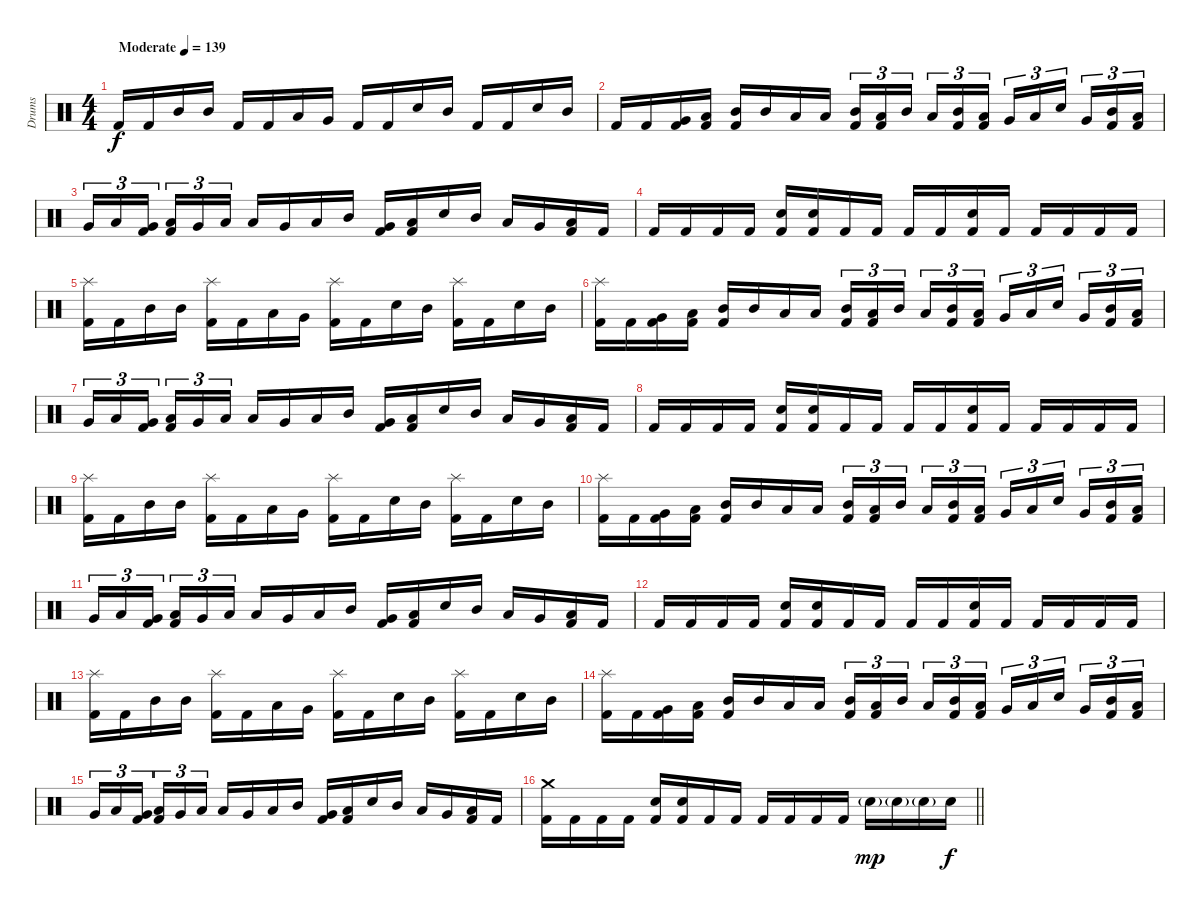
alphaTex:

\track ("Drums" "Drums") {instrument percussion}
\staff {score}
\articulation defaults
\ts (4 4)
\section ("" "")
\tempo (139 "Moderate")
\clef neutral
\ks c "Kick (hit) 2".16{dy f} "Kick (hit) 2".16 "Mid Tom (hit)".16 "Mid Tom (hit)".16 "Kick (hit) 2".16 "Kick (hit) 2".16 "Low Tom (hit)".16 "Very Low Tom (hit)".16 "Kick (hit) 2".16 "Kick (hit) 2".16 "Electric Snare (hit)".16 "Mid Tom (hit)".16 "Kick (hit) 2".16 "Kick (hit) 2".16 "Electric Snare (hit)".16 "Mid Tom (hit)".16
|
"Kick (hit) 2".16 "Kick (hit) 2".16 ("Very Low Tom (hit)" "Kick (hit) 2").16 ("Low Tom (hit)" "Kick (hit) 2").16 ("Mid Tom (hit)" "Kick (hit) 2").16 "Mid Tom (hit)".16 "Low Tom (hit)".16 "Low Tom (hit)".16 ("Mid Tom (hit)" "Kick (hit) 2").16{tu (3 2)} ("Low Tom (hit)" "Kick (hit) 2").16{tu (3 2)} "Mid Tom (hit)".16{tu (3 2) beam splitsecondary} "Low Tom (hit)".16{tu (3 2)} ("Mid Tom (hit)" "Kick (hit) 2").16{tu (3 2)} ("Low Tom (hit)" "Kick (hit) 2").16{tu (3 2)} "Very Low Tom (hit)".16{tu (3 2)} "Low Tom (hit)".16{tu (3 2)} "Electric Snare (hit)".16{tu (3 2) beam splitsecondary} "Very Low Tom (hit)".16{tu (3 2)} ("Mid Tom (hit)" "Kick (hit) 2").16{tu (3 2)} ("Low Tom (hit)" "Kick (hit) 2").16{tu (3 2)} |
"Very Low Tom (hit)".16{tu (3 2)} "Low Tom (hit)".16{tu (3 2)} ("Very Low Tom (hit)" "Kick (hit) 2").16{tu (3 2) beam splitsecondary} ("Low Floor Tom (hit)" "Kick (hit) 2").16{tu (3 2)} "Very Low Tom (hit)".16{tu (3 2)} "Low Floor Tom (hit)".16{tu (3 2)} "Low Tom (hit)".16 "Very Low Tom (hit)".16 "Low Tom (hit)".16 "Mid Tom (hit)".16 ("Very Low Tom (hit)" "Kick (hit) 2").16 ("Low Floor Tom (hit)" "Kick (hit) 2").16 "Electric Snare (hit)".16 "Mid Tom (hit)".16 "Low Tom (hit)".16 "Very Low Tom (hit)".16 ("Low Floor Tom (hit)" "Kick (hit) 2").16 "Kick (hit) 2".16 |
"Kick (hit) 2".16 "Kick (hit) 2".16 "Kick (hit) 2".16 "Kick (hit) 2".16 ("Electric Snare (hit)" "Kick (hit) 2").16 ("Electric Snare (hit)" "Kick (hit) 2").16 "Kick (hit) 2".16 "Kick (hit) 2".16 "Kick (hit) 2".16 "Kick (hit) 2".16 ("Electric Snare (hit)" "Kick (hit) 2").16 "Kick (hit) 2".16 "Kick (hit) 2".16 "Kick (hit) 2".16 "Kick (hit) 2".16 "Kick (hit) 2".16 |
("Splash (hit)" "Kick (hit) 2").16 "Kick (hit) 2".16 "Mid Tom (hit)".16 "Mid Tom (hit)".16 ("Splash (hit)" "Kick (hit) 2").16 "Kick (hit) 2".16 "Low Tom (hit)".16 "Very Low Tom (hit)".16 ("Splash (hit)" "Kick (hit) 2").16 "Kick (hit) 2".16 "Electric Snare (hit)".16 "Mid Tom (hit)".16 ("Splash (hit)" "Kick (hit) 2").16 "Kick (hit) 2".16 "Electric Snare (hit)".16 "Mid Tom (hit)".16 |
("Splash (hit)" "Kick (hit) 2").16 "Kick (hit) 2".16 ("Very Low Tom (hit)" "Kick (hit) 2").16 ("Low Tom (hit)" "Kick (hit) 2").16 ("Mid Tom (hit)" "Kick (hit) 2").16 "Mid Tom (hit)".16 "Low Tom (hit)".16 "Low Tom (hit)".16 ("Mid Tom (hit)" "Kick (hit) 2").16{tu (3 2)} ("Low Tom (hit)" "Kick (hit) 2").16{tu (3 2)} "Mid Tom (hit)".16{tu (3 2) beam splitsecondary} "Low Tom (hit)".16{tu (3 2)} ("Mid Tom (hit)" "Kick (hit) 2").16{tu (3 2)} ("Low Tom (hit)" "Kick (hit) 2").16{tu (3 2)} "Very Low Tom (hit)".16{tu (3 2)} "Low Tom (hit)".16{tu (3 2)} "Electric Snare (hit)".16{tu (3 2) beam splitsecondary} "Very Low Tom (hit)".16{tu (3 2)} ("Mid Tom (hit)" "Kick (hit) 2").16{tu (3 2)} ("Low Tom (hit)" "Kick (hit) 2").16{tu (3 2)} |
"Very Low Tom (hit)".16{tu (3 2)} "Low Tom (hit)".16{tu (3 2)} ("Very Low Tom (hit)" "Kick (hit) 2").16{tu (3 2) beam splitsecondary} ("Low Floor Tom (hit)" "Kick (hit) 2").16{tu (3 2)} "Very Low Tom (hit)".16{tu (3 2)} "Low Floor Tom (hit)".16{tu (3 2)} "Low Tom (hit)".16 "Very Low Tom (hit)".16 "Low Tom (hit)".16 "Mid Tom (hit)".16 ("Very Low Tom (hit)" "Kick (hit) 2").16 ("Low Floor Tom (hit)" "Kick (hit) 2").16 "Electric Snare (hit)".16 "Mid Tom (hit)".16 "Low Tom (hit)".16 "Very Low Tom (hit)".16 ("Low Floor Tom (hit)" "Kick (hit) 2").16 "Kick (hit) 2".16 |
"Kick (hit) 2".16 "Kick (hit) 2".16 "Kick (hit) 2".16 "Kick (hit) 2".16 ("Electric Snare (hit)" "Kick (hit) 2").16 ("Electric Snare (hit)" "Kick (hit) 2").16 "Kick (hit) 2".16 "Kick (hit) 2".16 "Kick (hit) 2".16 "Kick (hit) 2".16 ("Electric Snare (hit)" "Kick (hit) 2").16 "Kick (hit) 2".16 "Kick (hit) 2".16 "Kick (hit) 2".16 "Kick (hit) 2".16 "Kick (hit) 2".16 |
("Splash (hit)" "Kick (hit) 2").16 "Kick (hit) 2".16 "Mid Tom (hit)".16 "Mid Tom (hit)".16 ("Splash (hit)" "Kick (hit) 2").16 "Kick (hit) 2".16 "Low Tom (hit)".16 "Very Low Tom (hit)".16 ("Splash (hit)" "Kick (hit) 2").16 "Kick (hit) 2".16 "Electric Snare (hit)".16 "Mid Tom (hit)".16 ("Splash (hit)" "Kick (hit) 2").16 "Kick (hit) 2".16 "Electric Snare (hit)".16 "Mid Tom (hit)".16 |
("Splash (hit)" "Kick (hit) 2").16 "Kick (hit) 2".16 ("Very Low Tom (hit)" "Kick (hit) 2").16 ("Low Tom (hit)" "Kick (hit) 2").16 ("Mid Tom (hit)" "Kick (hit) 2").16 "Mid Tom (hit)".16 "Low Tom (hit)".16 "Low Tom (hit)".16 ("Mid Tom (hit)" "Kick (hit) 2").16{tu (3 2)} ("Low Tom (hit)" "Kick (hit) 2").16{tu (3 2)} "Mid Tom (hit)".16{tu (3 2) beam splitsecondary} "Low Tom (hit)".16{tu (3 2)} ("Mid Tom (hit)" "Kick (hit) 2").16{tu (3 2)} ("Low Tom (hit)" "Kick (hit) 2").16{tu (3 2)} "Very Low Tom (hit)".16{tu (3 2)} "Low Tom (hit)".16{tu (3 2)} "Electric Snare (hit)".16{tu (3 2) beam splitsecondary} "Very Low Tom (hit)".16{tu (3 2)} ("Mid Tom (hit)" "Kick (hit) 2").16{tu (3 2)} ("Low Tom (hit)" "Kick (hit) 2").16{tu (3 2)} |
"Very Low Tom (hit)".16{tu (3 2)} "Low Tom (hit)".16{tu (3 2)} ("Very Low Tom (hit)" "Kick (hit) 2").16{tu (3 2) beam splitsecondary} ("Low Floor Tom (hit)" "Kick (hit) 2").16{tu (3 2)} "Very Low Tom (hit)".16{tu (3 2)} "Low Floor Tom (hit)".16{tu (3 2)} "Low Tom (hit)".16 "Very Low Tom (hit)".16 "Low Tom (hit)".16 "Mid Tom (hit)".16 ("Very Low Tom (hit)" "Kick (hit) 2").16 ("Low Floor Tom (hit)" "Kick (hit) 2").16 "Electric Snare (hit)".16 "Mid Tom (hit)".16 "Low Tom (hit)".16 "Very Low Tom (hit)".16 ("Low Floor Tom (hit)" "Kick (hit) 2").16 "Kick (hit) 2".16 |
"Kick (hit) 2".16 "Kick (hit) 2".16 "Kick (hit) 2".16 "Kick (hit) 2".16 ("Electric Snare (hit)" "Kick (hit) 2").16 ("Electric Snare (hit)" "Kick (hit) 2").16 "Kick (hit) 2".16 "Kick (hit) 2".16 "Kick (hit) 2".16 "Kick (hit) 2".16 ("Electric Snare (hit)" "Kick (hit) 2").16 "Kick (hit) 2".16 "Kick (hit) 2".16 "Kick (hit) 2".16 "Kick (hit) 2".16 "Kick (hit) 2".16 |
("Splash (hit)" "Kick (hit) 2").16 "Kick (hit) 2".16 "Mid Tom (hit)".16 "Mid Tom (hit)".16 ("Splash (hit)" "Kick (hit) 2").16 "Kick (hit) 2".16 "Low Tom (hit)".16 "Very Low Tom (hit)".16 ("Splash (hit)" "Kick (hit) 2").16 "Kick (hit) 2".16 "Electric Snare (hit)".16 "Mid Tom (hit)".16 ("Splash (hit)" "Kick (hit) 2").16 "Kick (hit) 2".16 "Electric Snare (hit)".16 "Mid Tom (hit)".16 |
("Splash (hit)" "Kick (hit) 2").16 "Kick (hit) 2".16 ("Very Low Tom (hit)" "Kick (hit) 2").16 ("Low Tom (hit)" "Kick (hit) 2").16 ("Mid Tom (hit)" "Kick (hit) 2").16 "Mid Tom (hit)".16 "Low Tom (hit)".16 "Low Tom (hit)".16 ("Mid Tom (hit)" "Kick (hit) 2").16{tu (3 2)} ("Low Tom (hit)" "Kick (hit) 2").16{tu (3 2)} "Mid Tom (hit)".16{tu (3 2) beam splitsecondary} "Low Tom (hit)".16{tu (3 2)} ("Mid Tom (hit)" "Kick (hit) 2").16{tu (3 2)} ("Low Tom (hit)" "Kick (hit) 2").16{tu (3 2)} "Very Low Tom (hit)".16{tu (3 2)} "Low Tom (hit)".16{tu (3 2)} "Electric Snare (hit)".16{tu (3 2) beam splitsecondary} "Very Low Tom (hit)".16{tu (3 2)} ("Mid Tom (hit)" "Kick (hit) 2").16{tu (3 2)} ("Low Tom (hit)" "Kick (hit) 2").16{tu (3 2)} |
"Very Low Tom (hit)".16{tu (3 2)} "Low Tom (hit)".16{tu (3 2)} ("Very Low Tom (hit)" "Kick (hit) 2").16{tu (3 2) beam splitsecondary} ("Low Floor Tom (hit)" "Kick (hit) 2").16{tu (3 2)} "Very Low Tom (hit)".16{tu (3 2)} "Low Floor Tom (hit)".16{tu (3 2)} "Low Tom (hit)".16 "Very Low Tom (hit)".16 "Low Tom (hit)".16 "Mid Tom (hit)".16 ("Very Low Tom (hit)" "Kick (hit) 2").16 ("Low Floor Tom (hit)" "Kick (hit) 2").16 "Electric Snare (hit)".16 "Mid Tom (hit)".16 "Low Tom (hit)".16 "Very Low Tom (hit)".16 ("Low Floor Tom (hit)" "Kick (hit) 2").16 "Kick (hit) 2".16 |
\barLineRight lightlight
("Crash medium (hit)" "Kick (hit) 2").16 "Kick (hit) 2".16 "Kick (hit) 2".16 "Kick (hit) 2".16 ("Electric Snare (hit)" "Kick (hit) 2").16 ("Electric Snare (hit)" "Kick (hit) 2").16 "Kick (hit) 2".16 "Kick (hit) 2".16 "Kick (hit) 2".16 "Kick (hit) 2".16 "Kick (hit) 2".16 "Kick (hit) 2".16 "Electric Snare (hit)"{g}.16{dy mp} "Electric Snare (hit)"{g}.16 "Electric Snare (hit)"{g}.16 "Electric Snare (hit)".16{dy f}
